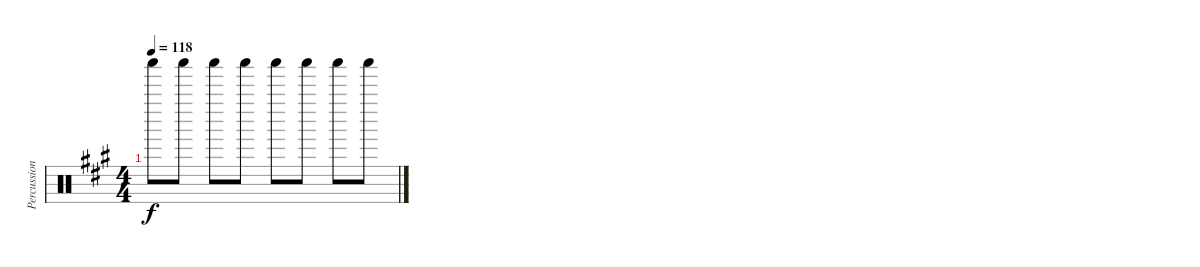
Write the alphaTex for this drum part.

\track ("Percussions" "Percussion") {instrument percussion}
\staff {score}
\articulation defaults
\ts (4 4)
\tempo 118
\clef neutral
\ks f#minor "Shaker (hit)".8{dy f} "Shaker (hit)".8 "Shaker (hit)".8 "Shaker (hit)".8 "Shaker (hit)".8 "Shaker (hit)".8 "Shaker (hit)".8 "Shaker (hit)".8
